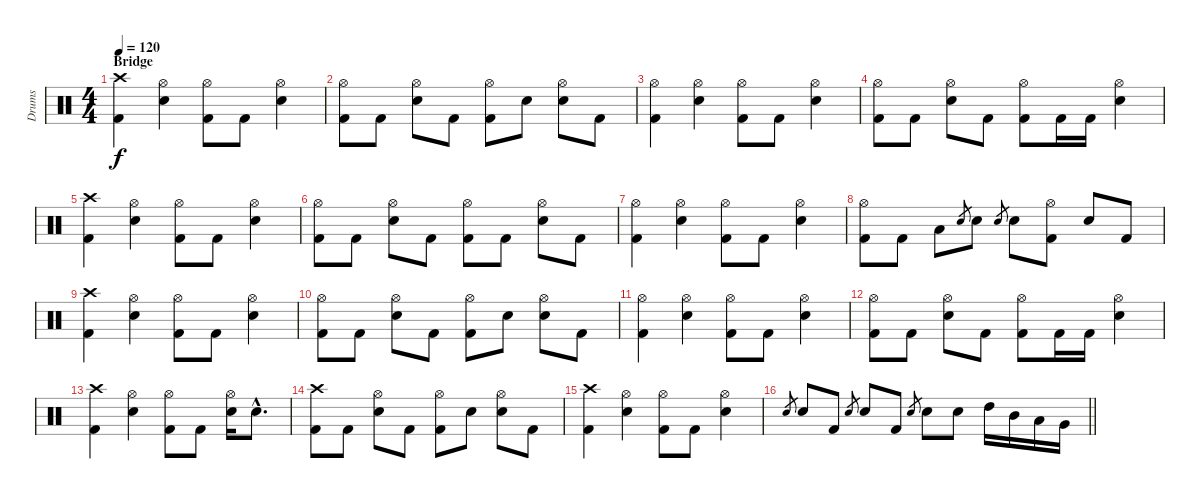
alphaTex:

\track ("Drums" "Drums") {instrument percussion}
\staff {score}
\articulation defaults
\ts (4 4)
\section ("" "Bridge")
\tempo 120
\clef neutral
\ks c
("Crash high (hit)" "Kick (hit) 2").4{dy f} ("Hi-Hat (open)" "Snare (hit) 2").4 ("Hi-Hat (open)" "Kick (hit) 2").8 "Kick (hit) 2".8 ("Hi-Hat (open)" "Snare (hit) 2").4 |
("Hi-Hat (open)" "Kick (hit) 2").8 "Kick (hit) 2".8 ("Hi-Hat (open)" "Snare (hit) 2").8 "Kick (hit) 2".8 ("Hi-Hat (open)" "Kick (hit) 2").8 "Snare (hit) 2".8 ("Hi-Hat (open)" "Snare (hit) 2").8 "Kick (hit) 2".8 |
("Hi-Hat (open)" "Kick (hit) 2").4 ("Hi-Hat (open)" "Snare (hit) 2").4 ("Hi-Hat (open)" "Kick (hit) 2").8 "Kick (hit) 2".8 ("Hi-Hat (open)" "Snare (hit) 2").4 |
("Hi-Hat (open)" "Kick (hit) 2").8 "Kick (hit) 2".8 ("Hi-Hat (open)" "Snare (hit) 2").8 "Kick (hit) 2".8 ("Hi-Hat (open)" "Kick (hit) 2").8 "Kick (hit) 2".16 "Kick (hit) 2".16 ("Hi-Hat (open)" "Snare (hit) 2").4 |
("Crash high (hit)" "Kick (hit) 2").4 ("Hi-Hat (open)" "Snare (hit) 2").4 ("Hi-Hat (open)" "Kick (hit) 2").8 "Kick (hit) 2".8 ("Hi-Hat (open)" "Snare (hit) 2").4 |
("Hi-Hat (open)" "Kick (hit) 2").8 "Kick (hit) 2".8 ("Hi-Hat (open)" "Snare (hit) 2").8 "Kick (hit) 2".8 ("Hi-Hat (open)" "Kick (hit) 2").8 "Kick (hit) 2".8 ("Hi-Hat (open)" "Snare (hit) 2").8 "Kick (hit) 2".8 |
("Hi-Hat (open)" "Kick (hit) 2").4 ("Hi-Hat (open)" "Snare (hit) 2").4 ("Hi-Hat (open)" "Kick (hit) 2").8 "Kick (hit) 2".8 ("Hi-Hat (open)" "Snare (hit) 2").4 |
("Hi-Hat (open)" "Kick (hit) 2").8 "Kick (hit) 2".8 "Low Tom (hit)".8 "Snare (hit) 2".8{gr} "Snare (hit) 2".8 "Snare (hit) 2".8{gr} "Snare (hit) 2".8 ("Hi-Hat (open)" "Kick (hit) 2").8 "Snare (hit) 2".8 "Kick (hit) 2".8 |
("Crash high (hit)" "Kick (hit) 2").4 ("Hi-Hat (open)" "Snare (hit) 2").4 ("Hi-Hat (open)" "Kick (hit) 2").8 "Kick (hit) 2".8 ("Hi-Hat (open)" "Snare (hit) 2").4 |
("Hi-Hat (open)" "Kick (hit) 2").8 "Kick (hit) 2".8 ("Hi-Hat (open)" "Snare (hit) 2").8 "Kick (hit) 2".8 ("Hi-Hat (open)" "Kick (hit) 2").8 "Snare (hit) 2".8 ("Hi-Hat (open)" "Snare (hit) 2").8 "Kick (hit) 2".8 |
("Hi-Hat (open)" "Kick (hit) 2").4 ("Hi-Hat (open)" "Snare (hit) 2").4 ("Hi-Hat (open)" "Kick (hit) 2").8 "Kick (hit) 2".8 ("Hi-Hat (open)" "Snare (hit) 2").4 |
("Hi-Hat (open)" "Kick (hit) 2").8 "Kick (hit) 2".8 ("Hi-Hat (open)" "Snare (hit) 2").8 "Kick (hit) 2".8 ("Hi-Hat (open)" "Kick (hit) 2").8 "Kick (hit) 2".16 "Kick (hit) 2".16 ("Hi-Hat (open)" "Snare (hit) 2").4 |
("Crash high (hit)" "Kick (hit) 2").4 ("Hi-Hat (open)" "Snare (hit) 2").4 ("Hi-Hat (open)" "Kick (hit) 2").8 "Kick (hit) 2".8 ("Hi-Hat (open)" "Snare (hit) 2").16 "Snare (hit) 2"{hac}.8{d} |
("Crash high (hit)" "Kick (hit) 2").8 "Kick (hit) 2".8 ("Hi-Hat (open)" "Snare (hit) 2").8 "Kick (hit) 2".8 ("Hi-Hat (open)" "Kick (hit) 2").8 "Snare (hit) 2".8 ("Hi-Hat (open)" "Snare (hit) 2").8 "Kick (hit) 2".8 |
("Crash high (hit)" "Kick (hit) 2").4 ("Hi-Hat (open)" "Snare (hit) 2").4 ("Hi-Hat (open)" "Kick (hit) 2").8 "Kick (hit) 2".8 ("Hi-Hat (open)" "Snare (hit) 2").4 |
\barLineRight lightlight "Snare (hit) 2".8{gr} "Snare (hit) 2".8 "Kick (hit) 2".8 "Snare (hit) 2".8{gr} "Snare (hit) 2".8 "Kick (hit) 2".8 "Snare (hit) 2".8{gr} "Snare (hit) 2".8 "Snare (hit) 2".8 "High Tom (hit)".16 "Mid Tom (hit)".16 "Low Tom (hit)".16 "Very Low Tom (hit)".16
